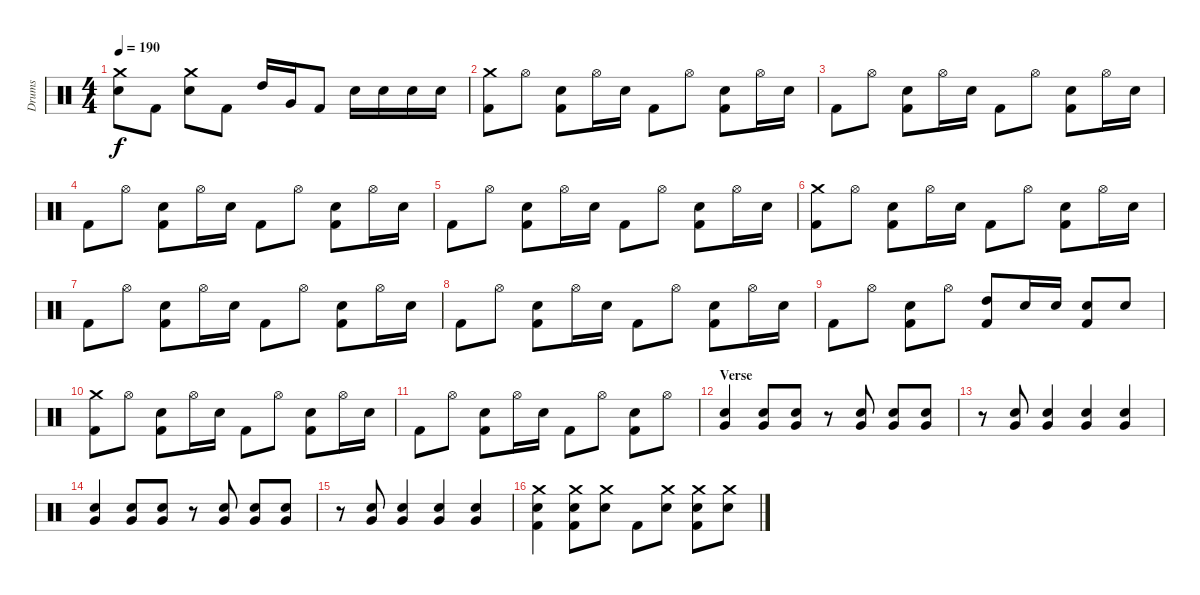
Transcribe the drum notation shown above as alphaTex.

\track ("Drums" "Drums") {instrument percussion}
\staff {score}
\articulation defaults
\ts (4 4)
\tempo 190
\clef neutral
\ks c
("Crash medium (hit)" "Snare (hit) 2").8{dy f} "Kick (hit) 2".8 ("Crash medium (hit)" "Snare (hit) 2").8 "Kick (hit) 2".8 "High Tom (hit)".16 "Very Low Tom (hit)".16 "Kick (hit) 2".8 "Snare (hit) 2".16 "Snare (hit) 2".16 "Snare (hit) 2".16 "Snare (hit) 2".16 |
("Crash medium (hit)" "Kick (hit) 2").8 "Hi-Hat (open)".8 ("Snare (hit) 2" "Kick (hit) 2").8 "Hi-Hat (open)".16 "Snare (hit) 2".16 "Kick (hit) 2".8 "Hi-Hat (open)".8 ("Snare (hit) 2" "Kick (hit) 2").8 "Hi-Hat (open)".16 "Snare (hit) 2".16 |
"Kick (hit) 2".8 "Hi-Hat (open)".8 ("Snare (hit) 2" "Kick (hit) 2").8 "Hi-Hat (open)".16 "Snare (hit) 2".16 "Kick (hit) 2".8 "Hi-Hat (open)".8 ("Snare (hit) 2" "Kick (hit) 2").8 "Hi-Hat (open)".16 "Snare (hit) 2".16 |
"Kick (hit) 2".8 "Hi-Hat (open)".8 ("Snare (hit) 2" "Kick (hit) 2").8 "Hi-Hat (open)".16 "Snare (hit) 2".16 "Kick (hit) 2".8 "Hi-Hat (open)".8 ("Snare (hit) 2" "Kick (hit) 2").8 "Hi-Hat (open)".16 "Snare (hit) 2".16 |
"Kick (hit) 2".8 "Hi-Hat (open)".8 ("Snare (hit) 2" "Kick (hit) 2").8 "Hi-Hat (open)".16 "Snare (hit) 2".16 "Kick (hit) 2".8 "Hi-Hat (open)".8 ("Snare (hit) 2" "Kick (hit) 2").8 "Hi-Hat (open)".16 "Snare (hit) 2".16 |
("Crash medium (hit)" "Kick (hit) 2").8 "Hi-Hat (open)".8 ("Snare (hit) 2" "Kick (hit) 2").8 "Hi-Hat (open)".16 "Snare (hit) 2".16 "Kick (hit) 2".8 "Hi-Hat (open)".8 ("Snare (hit) 2" "Kick (hit) 2").8 "Hi-Hat (open)".16 "Snare (hit) 2".16 |
"Kick (hit) 2".8 "Hi-Hat (open)".8 ("Snare (hit) 2" "Kick (hit) 2").8 "Hi-Hat (open)".16 "Snare (hit) 2".16 "Kick (hit) 2".8 "Hi-Hat (open)".8 ("Snare (hit) 2" "Kick (hit) 2").8 "Hi-Hat (open)".16 "Snare (hit) 2".16 |
"Kick (hit) 2".8 "Hi-Hat (open)".8 ("Snare (hit) 2" "Kick (hit) 2").8 "Hi-Hat (open)".16 "Snare (hit) 2".16 "Kick (hit) 2".8 "Hi-Hat (open)".8 ("Snare (hit) 2" "Kick (hit) 2").8 "Hi-Hat (open)".16 "Snare (hit) 2".16 |
"Kick (hit) 2".8 "Hi-Hat (open)".8 ("Snare (hit) 2" "Kick (hit) 2").8 "Hi-Hat (open)".8 ("High Tom (hit)" "Kick (hit) 2").8 "Snare (hit) 2".16 "Snare (hit) 2".16 ("Snare (hit) 2" "Kick (hit) 2").8 "Snare (hit) 2".8 |
("Crash medium (hit)" "Kick (hit) 2").8 "Hi-Hat (open)".8 ("Snare (hit) 2" "Kick (hit) 2").8 "Hi-Hat (open)".16 "Snare (hit) 2".16 "Kick (hit) 2".8 "Hi-Hat (open)".8 ("Snare (hit) 2" "Kick (hit) 2").8 "Hi-Hat (open)".16 "Snare (hit) 2".16 |
"Kick (hit) 2".8 "Hi-Hat (open)".8 ("Snare (hit) 2" "Kick (hit) 2").8 "Hi-Hat (open)".16 "Snare (hit) 2".16 "Kick (hit) 2".8 "Hi-Hat (open)".8 ("Snare (hit) 2" "Kick (hit) 2").8 "Hi-Hat (open)".8 |
\section ("" "Verse")
("Snare (hit) 2" "Very Low Tom (hit)").4 ("Snare (hit) 2" "Very Low Tom (hit)").8 ("Snare (hit) 2" "Very Low Tom (hit)").8 r.8 ("Snare (hit) 2" "Very Low Tom (hit)").8 ("Snare (hit) 2" "Very Low Tom (hit)").8 ("Snare (hit) 2" "Very Low Tom (hit)").8 |
r.8 ("Snare (hit) 2" "Very Low Tom (hit)").8 ("Snare (hit) 2" "Very Low Tom (hit)").4 ("Snare (hit) 2" "Very Low Tom (hit)").4 ("Snare (hit) 2" "Very Low Tom (hit)").4 |
("Snare (hit) 2" "Very Low Tom (hit)").4 ("Snare (hit) 2" "Very Low Tom (hit)").8 ("Snare (hit) 2" "Very Low Tom (hit)").8 r.8 ("Snare (hit) 2" "Very Low Tom (hit)").8 ("Snare (hit) 2" "Very Low Tom (hit)").8 ("Snare (hit) 2" "Very Low Tom (hit)").8 |
r.8 ("Snare (hit) 2" "Very Low Tom (hit)").8 ("Snare (hit) 2" "Very Low Tom (hit)").4 ("Snare (hit) 2" "Very Low Tom (hit)").4 ("Snare (hit) 2" "Very Low Tom (hit)").4 |
("Crash medium (hit)" "Snare (hit) 2" "Kick (hit) 2").4 ("Crash medium (hit)" "Snare (hit) 2" "Kick (hit) 2").8 ("Crash medium (hit)" "Snare (hit) 2").8 "Kick (hit) 2".8 ("Crash medium (hit)" "Snare (hit) 2").8 ("Crash medium (hit)" "Snare (hit) 2" "Kick (hit) 2").8 ("Crash medium (hit)" "Snare (hit) 2").8
